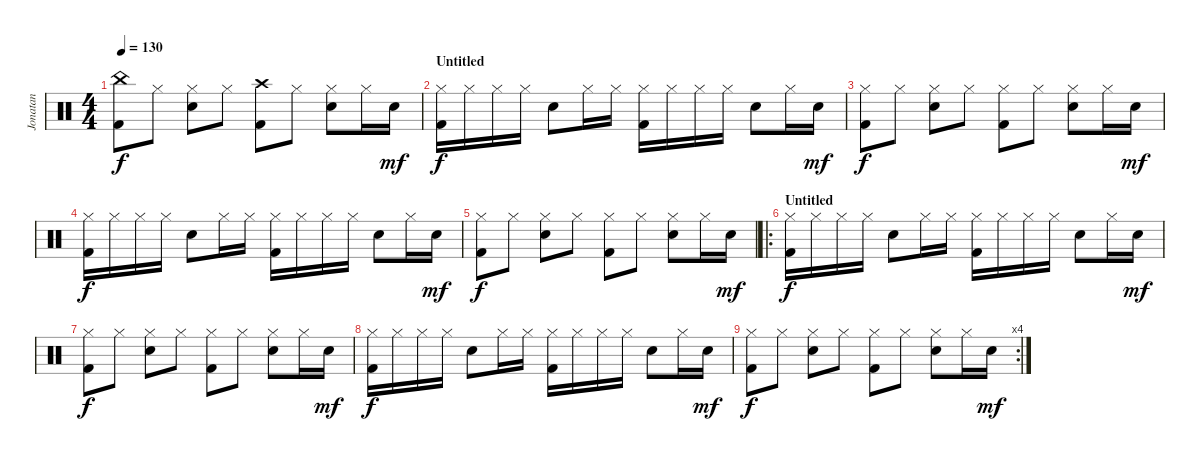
\track ("Jonatan" "Jonatan") {instrument percussion}
\staff {score}
\articulation defaults
\ts (4 4)
\tempo 130
\clef neutral
\ks c
("China (hit)" "Kick (hit) 2").8{dy f} "Hi-Hat (closed)".8 ("Hi-Hat (closed)" "Electric Snare (hit)").8 "Hi-Hat (closed)".8 ("Crash high (hit)" "Kick (hit) 2").8 "Hi-Hat (closed)".8 ("Hi-Hat (closed)" "Electric Snare (hit)").8 "Hi-Hat (closed)".16 "Electric Snare (hit)".16{dy mf} |
\section ("" "Untitled")
("Hi-Hat (closed)" "Kick (hit) 2").16{dy f} "Hi-Hat (closed)".16 "Hi-Hat (closed)".16 "Hi-Hat (closed)".16 "Electric Snare (hit)".8 "Hi-Hat (closed)".16 "Hi-Hat (closed)".16 ("Hi-Hat (closed)" "Kick (hit) 2").16 "Hi-Hat (closed)".16 "Hi-Hat (closed)".16 "Hi-Hat (closed)".16 "Electric Snare (hit)".8 "Hi-Hat (closed)".16 "Electric Snare (hit)".16{dy mf} |
("Hi-Hat (closed)" "Kick (hit) 2").8{dy f} "Hi-Hat (closed)".8 ("Hi-Hat (closed)" "Electric Snare (hit)").8 "Hi-Hat (closed)".8 ("Hi-Hat (closed)" "Kick (hit) 2").8 "Hi-Hat (closed)".8 ("Hi-Hat (closed)" "Electric Snare (hit)").8 "Hi-Hat (closed)".16 "Electric Snare (hit)".16{dy mf} |
("Hi-Hat (closed)" "Kick (hit) 2").16{dy f} "Hi-Hat (closed)".16 "Hi-Hat (closed)".16 "Hi-Hat (closed)".16 "Electric Snare (hit)".8 "Hi-Hat (closed)".16 "Hi-Hat (closed)".16 ("Hi-Hat (closed)" "Kick (hit) 2").16 "Hi-Hat (closed)".16 "Hi-Hat (closed)".16 "Hi-Hat (closed)".16 "Electric Snare (hit)".8 "Hi-Hat (closed)".16 "Electric Snare (hit)".16{dy mf} |
("Hi-Hat (closed)" "Kick (hit) 2").8{dy f} "Hi-Hat (closed)".8 ("Hi-Hat (closed)" "Electric Snare (hit)").8 "Hi-Hat (closed)".8 ("Hi-Hat (closed)" "Kick (hit) 2").8 "Hi-Hat (closed)".8 ("Hi-Hat (closed)" "Electric Snare (hit)").8 "Hi-Hat (closed)".16 "Electric Snare (hit)".16{dy mf} |
\ro
\section ("" "Untitled")
("Hi-Hat (closed)" "Kick (hit) 2").16{dy f} "Hi-Hat (closed)".16 "Hi-Hat (closed)".16 "Hi-Hat (closed)".16 "Electric Snare (hit)".8 "Hi-Hat (closed)".16 "Hi-Hat (closed)".16 ("Hi-Hat (closed)" "Kick (hit) 2").16 "Hi-Hat (closed)".16 "Hi-Hat (closed)".16 "Hi-Hat (closed)".16 "Electric Snare (hit)".8 "Hi-Hat (closed)".16 "Electric Snare (hit)".16{dy mf} |
("Hi-Hat (closed)" "Kick (hit) 2").8{dy f} "Hi-Hat (closed)".8 ("Hi-Hat (closed)" "Electric Snare (hit)").8 "Hi-Hat (closed)".8 ("Hi-Hat (closed)" "Kick (hit) 2").8 "Hi-Hat (closed)".8 ("Hi-Hat (closed)" "Electric Snare (hit)").8 "Hi-Hat (closed)".16 "Electric Snare (hit)".16{dy mf} |
("Hi-Hat (closed)" "Kick (hit) 2").16{dy f} "Hi-Hat (closed)".16 "Hi-Hat (closed)".16 "Hi-Hat (closed)".16 "Electric Snare (hit)".8 "Hi-Hat (closed)".16 "Hi-Hat (closed)".16 ("Hi-Hat (closed)" "Kick (hit) 2").16 "Hi-Hat (closed)".16 "Hi-Hat (closed)".16 "Hi-Hat (closed)".16 "Electric Snare (hit)".8 "Hi-Hat (closed)".16 "Electric Snare (hit)".16{dy mf} |
\rc 4
("Hi-Hat (closed)" "Kick (hit) 2").8{dy f} "Hi-Hat (closed)".8 ("Hi-Hat (closed)" "Electric Snare (hit)").8 "Hi-Hat (closed)".8 ("Hi-Hat (closed)" "Kick (hit) 2").8 "Hi-Hat (closed)".8 ("Hi-Hat (closed)" "Electric Snare (hit)").8 "Hi-Hat (closed)".16 "Electric Snare (hit)".16{dy mf}
